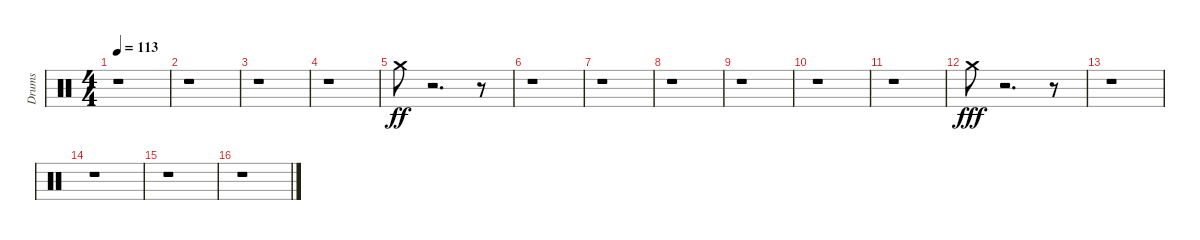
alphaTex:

\track ("Drums" "Drums") {instrument percussion}
\staff {score}
\articulation defaults
\ts (4 4)
\tempo 113
\clef neutral
\ks c
r.1{dy f} |
r.1 |
r.1 |
r.1 |
"Crash medium (hit)".8{dy ff} r.2{d} r.8 |
r.1 |
r.1 |
r.1 |
r.1 |
r.1 |
r.1 |
"Crash medium (hit)".8{dy fff} r.2{d} r.8 |
r.1 |
r.1 |
r.1 |
r.1
